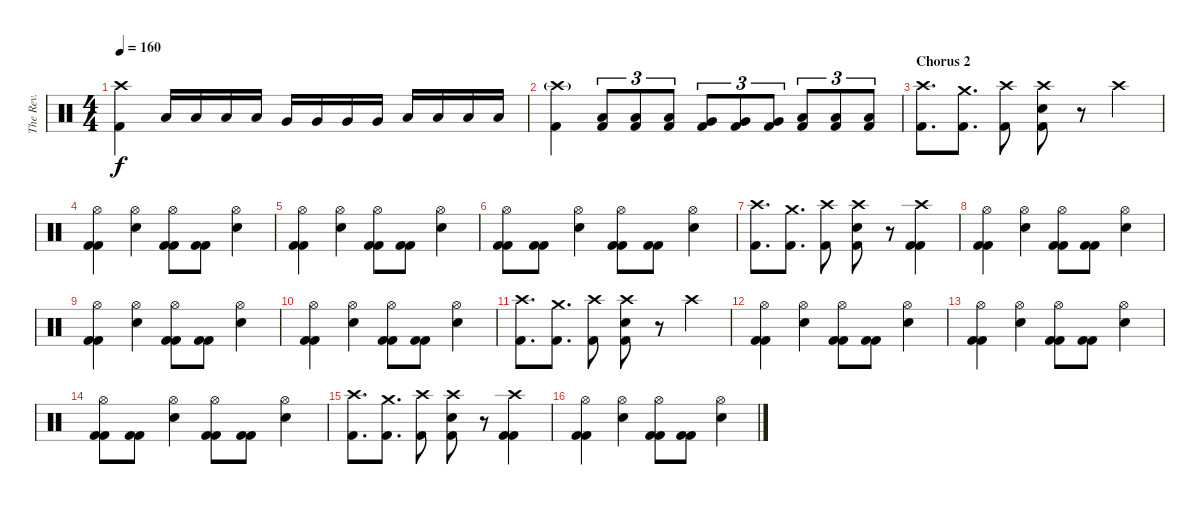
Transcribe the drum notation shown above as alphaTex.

\track ("The Rev." "The Rev.") {instrument percussion}
\staff {score}
\articulation defaults
\ts (4 4)
\tempo 160
\clef neutral
\ks c
("Crash high (hit)" "Kick (hit) 2").4{dy f} "Low Tom (hit)".16 "Low Tom (hit)".16 "Low Tom (hit)".16 "Low Tom (hit)".16 "Very Low Tom (hit)".16 "Very Low Tom (hit)".16 "Very Low Tom (hit)".16 "Very Low Tom (hit)".16 "Low Floor Tom (hit)".16 "Low Floor Tom (hit)".16 "Low Floor Tom (hit)".16 "Low Floor Tom (hit)".16 |
("Crash high (hit)"{g} "Kick (hit) 2").4 ("Low Tom (hit)" "Kick (hit) 2").8{tu (3 2)} ("Low Tom (hit)" "Kick (hit) 2").8{tu (3 2)} ("Low Tom (hit)" "Kick (hit) 2").8{tu (3 2)} ("Very Low Tom (hit)" "Kick (hit) 2").8{tu (3 2)} ("Very Low Tom (hit)" "Kick (hit) 2").8{tu (3 2)} ("Very Low Tom (hit)" "Kick (hit) 2").8{tu (3 2)} ("Low Floor Tom (hit)" "Kick (hit) 2").8{tu (3 2)} ("Low Floor Tom (hit)" "Kick (hit) 2").8{tu (3 2)} ("Low Floor Tom (hit)" "Kick (hit) 2").8{tu (3 2)} |
\section ("" "Chorus 2")
("Crash high (hit)" "Kick (hit) 2").8{d} ("Crash medium (hit)" "Kick (hit) 2").8{d} ("Crash high (hit)" "Kick (hit) 2").8 ("Crash high (hit)" "Electric Snare (hit)" "Kick (hit) 2").8 r.8 "Crash high (hit)".4 |
("Hi-Hat (open)" "Kick (hit) 2" "Kick (hit) 2").4 ("Hi-Hat (open)" "Electric Snare (hit)").4 ("Hi-Hat (open)" "Kick (hit) 2" "Kick (hit) 2").8 ("Kick (hit) 2" "Kick (hit) 2").8 ("Hi-Hat (open)" "Electric Snare (hit)").4 |
("Hi-Hat (open)" "Kick (hit) 2" "Kick (hit) 2").4 ("Hi-Hat (open)" "Electric Snare (hit)").4 ("Hi-Hat (open)" "Kick (hit) 2" "Kick (hit) 2").8 ("Kick (hit) 2" "Kick (hit) 2").8 ("Hi-Hat (open)" "Electric Snare (hit)").4 |
("Hi-Hat (open)" "Kick (hit) 2" "Kick (hit) 2").8 ("Kick (hit) 2" "Kick (hit) 2").8 ("Hi-Hat (open)" "Electric Snare (hit)").4 ("Hi-Hat (open)" "Kick (hit) 2" "Kick (hit) 2").8 ("Kick (hit) 2" "Kick (hit) 2").8 ("Hi-Hat (open)" "Electric Snare (hit)").4 |
("Crash high (hit)" "Kick (hit) 2").8{d} ("Crash medium (hit)" "Kick (hit) 2").8{d} ("Crash high (hit)" "Kick (hit) 2").8 ("Crash high (hit)" "Electric Snare (hit)" "Kick (hit) 2").8 r.8 ("Crash high (hit)" "Kick (hit) 2" "Kick (hit) 2").4 |
("Hi-Hat (open)" "Kick (hit) 2" "Kick (hit) 2").4 ("Hi-Hat (open)" "Electric Snare (hit)").4 ("Hi-Hat (open)" "Kick (hit) 2" "Kick (hit) 2").8 ("Kick (hit) 2" "Kick (hit) 2").8 ("Hi-Hat (open)" "Electric Snare (hit)").4 |
("Hi-Hat (open)" "Kick (hit) 2" "Kick (hit) 2").4 ("Hi-Hat (open)" "Electric Snare (hit)").4 ("Hi-Hat (open)" "Kick (hit) 2" "Kick (hit) 2").8 ("Kick (hit) 2" "Kick (hit) 2").8 ("Hi-Hat (open)" "Electric Snare (hit)").4 |
("Hi-Hat (open)" "Kick (hit) 2" "Kick (hit) 2").4 ("Hi-Hat (open)" "Electric Snare (hit)").4 ("Hi-Hat (open)" "Kick (hit) 2" "Kick (hit) 2").8 ("Kick (hit) 2" "Kick (hit) 2").8 ("Hi-Hat (open)" "Electric Snare (hit)").4 |
("Crash high (hit)" "Kick (hit) 2").8{d} ("Crash medium (hit)" "Kick (hit) 2").8{d} ("Crash high (hit)" "Kick (hit) 2").8 ("Crash high (hit)" "Electric Snare (hit)" "Kick (hit) 2").8 r.8 "Crash high (hit)".4 |
("Hi-Hat (open)" "Kick (hit) 2" "Kick (hit) 2").4 ("Hi-Hat (open)" "Electric Snare (hit)").4 ("Hi-Hat (open)" "Kick (hit) 2" "Kick (hit) 2").8 ("Kick (hit) 2" "Kick (hit) 2").8 ("Hi-Hat (open)" "Electric Snare (hit)").4 |
("Hi-Hat (open)" "Kick (hit) 2" "Kick (hit) 2").4 ("Hi-Hat (open)" "Electric Snare (hit)").4 ("Hi-Hat (open)" "Kick (hit) 2" "Kick (hit) 2").8 ("Kick (hit) 2" "Kick (hit) 2").8 ("Hi-Hat (open)" "Electric Snare (hit)").4 |
("Hi-Hat (open)" "Kick (hit) 2" "Kick (hit) 2").8 ("Kick (hit) 2" "Kick (hit) 2").8 ("Hi-Hat (open)" "Electric Snare (hit)").4 ("Hi-Hat (open)" "Kick (hit) 2" "Kick (hit) 2").8 ("Kick (hit) 2" "Kick (hit) 2").8 ("Hi-Hat (open)" "Electric Snare (hit)").4 |
("Crash high (hit)" "Kick (hit) 2").8{d} ("Crash medium (hit)" "Kick (hit) 2").8{d} ("Crash high (hit)" "Kick (hit) 2").8 ("Crash high (hit)" "Electric Snare (hit)" "Kick (hit) 2").8 r.8 ("Crash high (hit)" "Kick (hit) 2" "Kick (hit) 2").4 |
("Hi-Hat (open)" "Kick (hit) 2" "Kick (hit) 2").4 ("Hi-Hat (open)" "Electric Snare (hit)").4 ("Hi-Hat (open)" "Kick (hit) 2" "Kick (hit) 2").8 ("Kick (hit) 2" "Kick (hit) 2").8 ("Hi-Hat (open)" "Electric Snare (hit)").4
